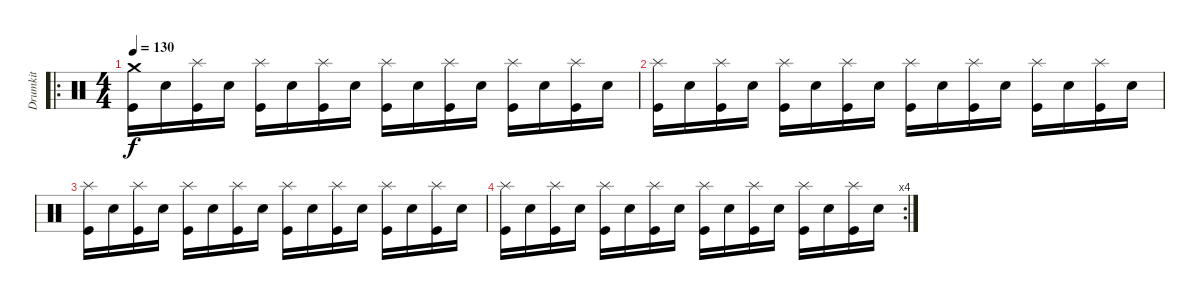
\track ("Drumkit" "Drumkit") {instrument percussion}
\staff {score}
\articulation defaults
\ro
\ts (4 4)
\tempo 130
\clef neutral
\ks c
("Crash medium (hit)" "Kick (hit)").16{dy f} "Snare (hit) 2".16 ("Splash (hit)" "Kick (hit)").16 "Snare (hit) 2".16 ("Splash (hit)" "Kick (hit)").16 "Snare (hit) 2".16 ("Splash (hit)" "Kick (hit)").16 "Snare (hit) 2".16 ("Splash (hit)" "Kick (hit)").16 "Snare (hit) 2".16 ("Splash (hit)" "Kick (hit)").16 "Snare (hit) 2".16 ("Splash (hit)" "Kick (hit)").16 "Snare (hit) 2".16 ("Splash (hit)" "Kick (hit)").16 "Snare (hit) 2".16 |
("Splash (hit)" "Kick (hit)").16 "Snare (hit) 2".16 ("Splash (hit)" "Kick (hit)").16 "Snare (hit) 2".16 ("Splash (hit)" "Kick (hit)").16 "Snare (hit) 2".16 ("Splash (hit)" "Kick (hit)").16 "Snare (hit) 2".16 ("Splash (hit)" "Kick (hit)").16 "Snare (hit) 2".16 ("Splash (hit)" "Kick (hit)").16 "Snare (hit) 2".16 ("Splash (hit)" "Kick (hit)").16 "Snare (hit) 2".16 ("Splash (hit)" "Kick (hit)").16 "Snare (hit) 2".16 |
("Splash (hit)" "Kick (hit)").16 "Snare (hit) 2".16 ("Splash (hit)" "Kick (hit)").16 "Snare (hit) 2".16 ("Splash (hit)" "Kick (hit)").16 "Snare (hit) 2".16 ("Splash (hit)" "Kick (hit)").16 "Snare (hit) 2".16 ("Splash (hit)" "Kick (hit)").16 "Snare (hit) 2".16 ("Splash (hit)" "Kick (hit)").16 "Snare (hit) 2".16 ("Splash (hit)" "Kick (hit)").16 "Snare (hit) 2".16 ("Splash (hit)" "Kick (hit)").16 "Snare (hit) 2".16 |
\rc 4
("Splash (hit)" "Kick (hit)").16 "Snare (hit) 2".16 ("Splash (hit)" "Kick (hit)").16 "Snare (hit) 2".16 ("Splash (hit)" "Kick (hit)").16 "Snare (hit) 2".16 ("Splash (hit)" "Kick (hit)").16 "Snare (hit) 2".16 ("Splash (hit)" "Kick (hit)").16 "Snare (hit) 2".16 ("Splash (hit)" "Kick (hit)").16 "Snare (hit) 2".16 ("Splash (hit)" "Kick (hit)").16 "Snare (hit) 2".16 ("Splash (hit)" "Kick (hit)").16 "Snare (hit) 2".16
